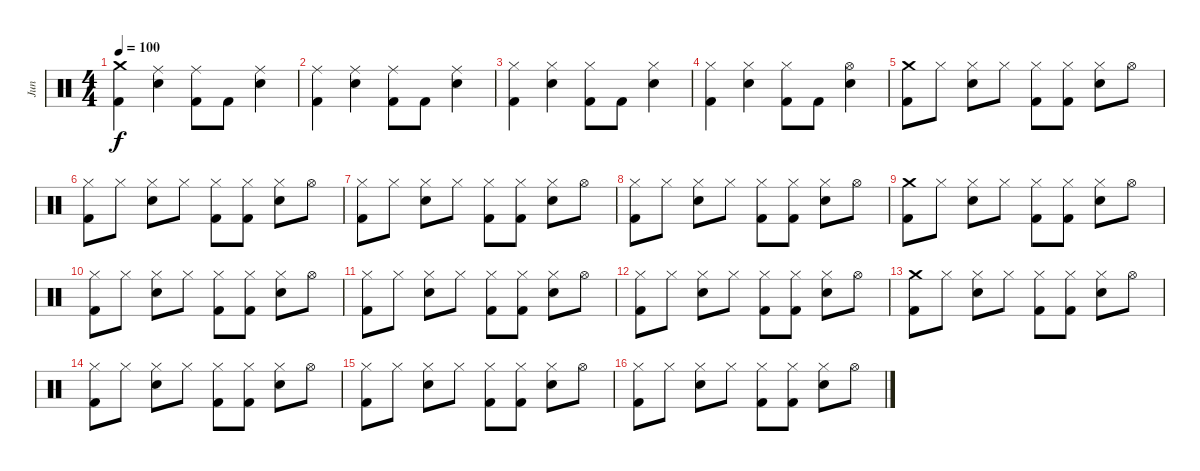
\track ("Jun " "Jun ") {instrument percussion}
\staff {score}
\articulation defaults
\ts (4 4)
\tempo 100
\clef neutral
\ks c
("Crash medium (hit)" "Kick (hit) 2").4{dy f} ("Ride (middle)" "Snare (hit) 2").4 ("Ride (middle)" "Kick (hit) 2").8 "Kick (hit) 2".8 ("Ride (middle)" "Snare (hit) 2").4 |
("Ride (middle)" "Kick (hit) 2").4 ("Ride (middle)" "Snare (hit) 2").4 ("Ride (middle)" "Kick (hit) 2").8 "Kick (hit) 2".8 ("Ride (middle)" "Snare (hit) 2").4 |
("Hi-Hat (closed)" "Kick (hit) 2").4 ("Hi-Hat (closed)" "Snare (hit) 2").4 ("Hi-Hat (closed)" "Kick (hit) 2").8 "Kick (hit) 2".8 ("Hi-Hat (closed)" "Snare (hit) 2").4 |
("Hi-Hat (closed)" "Kick (hit) 2").4 ("Hi-Hat (closed)" "Snare (hit) 2").4 ("Hi-Hat (closed)" "Kick (hit) 2").8 "Kick (hit) 2".8 ("Hi-Hat (open)" "Snare (hit) 2").4 |
("Crash medium (hit)" "Kick (hit) 2").8 "Hi-Hat (closed)".8 ("Hi-Hat (closed)" "Snare (hit) 2").8 "Hi-Hat (closed)".8 ("Hi-Hat (closed)" "Kick (hit) 2").8 ("Hi-Hat (closed)" "Kick (hit) 2").8 ("Hi-Hat (closed)" "Snare (hit) 2").8 "Hi-Hat (open)".8 |
("Hi-Hat (closed)" "Kick (hit) 2").8 "Hi-Hat (closed)".8 ("Hi-Hat (closed)" "Snare (hit) 2").8 "Hi-Hat (closed)".8 ("Hi-Hat (closed)" "Kick (hit) 2").8 ("Hi-Hat (closed)" "Kick (hit) 2").8 ("Hi-Hat (closed)" "Snare (hit) 2").8 "Hi-Hat (open)".8 |
("Hi-Hat (closed)" "Kick (hit) 2").8 "Hi-Hat (closed)".8 ("Hi-Hat (closed)" "Snare (hit) 2").8 "Hi-Hat (closed)".8 ("Hi-Hat (closed)" "Kick (hit) 2").8 ("Hi-Hat (closed)" "Kick (hit) 2").8 ("Hi-Hat (closed)" "Snare (hit) 2").8 "Hi-Hat (open)".8 |
("Hi-Hat (closed)" "Kick (hit) 2").8 "Hi-Hat (closed)".8 ("Hi-Hat (closed)" "Snare (hit) 2").8 "Hi-Hat (closed)".8 ("Hi-Hat (closed)" "Kick (hit) 2").8 ("Hi-Hat (closed)" "Kick (hit) 2").8 ("Hi-Hat (closed)" "Snare (hit) 2").8 "Hi-Hat (open)".8 |
("Crash medium (hit)" "Kick (hit) 2").8 "Hi-Hat (closed)".8 ("Hi-Hat (closed)" "Snare (hit) 2").8 "Hi-Hat (closed)".8 ("Hi-Hat (closed)" "Kick (hit) 2").8 ("Hi-Hat (closed)" "Kick (hit) 2").8 ("Hi-Hat (closed)" "Snare (hit) 2").8 "Hi-Hat (open)".8 |
("Hi-Hat (closed)" "Kick (hit) 2").8 "Hi-Hat (closed)".8 ("Hi-Hat (closed)" "Snare (hit) 2").8 "Hi-Hat (closed)".8 ("Hi-Hat (closed)" "Kick (hit) 2").8 ("Hi-Hat (closed)" "Kick (hit) 2").8 ("Hi-Hat (closed)" "Snare (hit) 2").8 "Hi-Hat (open)".8 |
("Hi-Hat (closed)" "Kick (hit) 2").8 "Hi-Hat (closed)".8 ("Hi-Hat (closed)" "Snare (hit) 2").8 "Hi-Hat (closed)".8 ("Hi-Hat (closed)" "Kick (hit) 2").8 ("Hi-Hat (closed)" "Kick (hit) 2").8 ("Hi-Hat (closed)" "Snare (hit) 2").8 "Hi-Hat (open)".8 |
("Hi-Hat (closed)" "Kick (hit) 2").8 "Hi-Hat (closed)".8 ("Hi-Hat (closed)" "Snare (hit) 2").8 "Hi-Hat (closed)".8 ("Hi-Hat (closed)" "Kick (hit) 2").8 ("Hi-Hat (closed)" "Kick (hit) 2").8 ("Hi-Hat (closed)" "Snare (hit) 2").8 "Hi-Hat (open)".8 |
("Crash medium (hit)" "Kick (hit) 2").8 "Hi-Hat (closed)".8 ("Hi-Hat (closed)" "Snare (hit) 2").8 "Hi-Hat (closed)".8 ("Hi-Hat (closed)" "Kick (hit) 2").8 ("Hi-Hat (closed)" "Kick (hit) 2").8 ("Hi-Hat (closed)" "Snare (hit) 2").8 "Hi-Hat (open)".8 |
("Hi-Hat (closed)" "Kick (hit) 2").8 "Hi-Hat (closed)".8 ("Hi-Hat (closed)" "Snare (hit) 2").8 "Hi-Hat (closed)".8 ("Hi-Hat (closed)" "Kick (hit) 2").8 ("Hi-Hat (closed)" "Kick (hit) 2").8 ("Hi-Hat (closed)" "Snare (hit) 2").8 "Hi-Hat (open)".8 |
("Hi-Hat (closed)" "Kick (hit) 2").8 "Hi-Hat (closed)".8 ("Hi-Hat (closed)" "Snare (hit) 2").8 "Hi-Hat (closed)".8 ("Hi-Hat (closed)" "Kick (hit) 2").8 ("Hi-Hat (closed)" "Kick (hit) 2").8 ("Hi-Hat (closed)" "Snare (hit) 2").8 "Hi-Hat (open)".8 |
("Hi-Hat (closed)" "Kick (hit) 2").8 "Hi-Hat (closed)".8 ("Hi-Hat (closed)" "Snare (hit) 2").8 "Hi-Hat (closed)".8 ("Hi-Hat (closed)" "Kick (hit) 2").8 ("Hi-Hat (closed)" "Kick (hit) 2").8 ("Hi-Hat (closed)" "Snare (hit) 2").8 "Hi-Hat (open)".8
